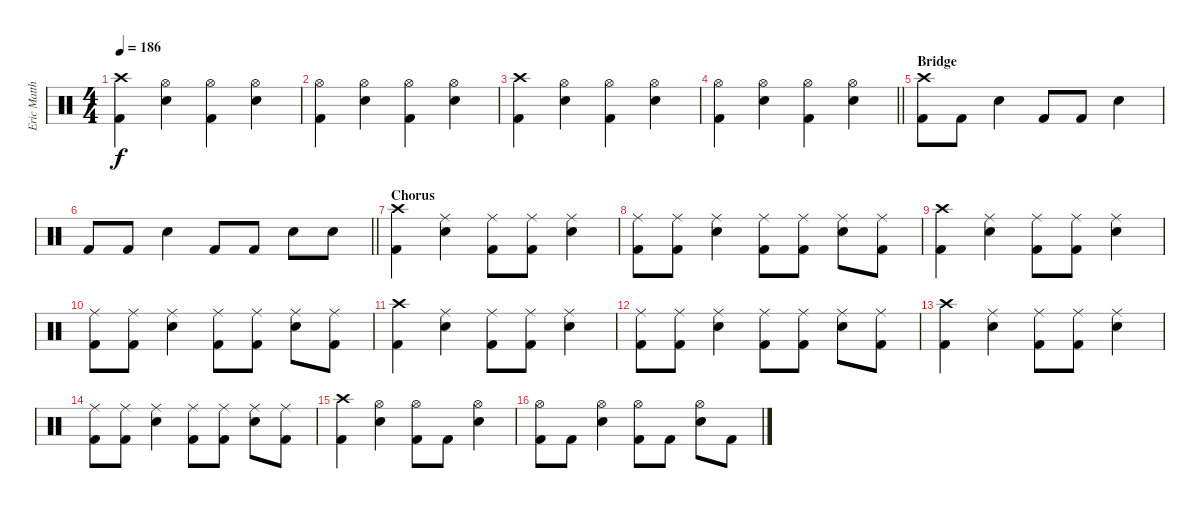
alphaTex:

\track ("Eric Matthews" "Eric Matth") {instrument percussion}
\staff {score}
\articulation defaults
\ts (4 4)
\tempo 186
\clef neutral
\ks c
("Crash high (hit)" "Kick (hit) 2").4{dy f} ("Hi-Hat (open)" "Electric Snare (hit)").4 ("Hi-Hat (open)" "Kick (hit) 2").4 ("Hi-Hat (open)" "Electric Snare (hit)").4 |
("Hi-Hat (open)" "Kick (hit) 2").4 ("Hi-Hat (open)" "Electric Snare (hit)").4 ("Hi-Hat (open)" "Kick (hit) 2").4 ("Hi-Hat (open)" "Electric Snare (hit)").4 |
("Crash high (hit)" "Kick (hit) 2").4 ("Hi-Hat (open)" "Electric Snare (hit)").4 ("Hi-Hat (open)" "Kick (hit) 2").4 ("Hi-Hat (open)" "Electric Snare (hit)").4 |
\barLineRight lightlight
("Hi-Hat (open)" "Kick (hit) 2").4 ("Hi-Hat (open)" "Electric Snare (hit)").4 ("Hi-Hat (open)" "Kick (hit) 2").4 ("Hi-Hat (open)" "Electric Snare (hit)").4 |
\section ("" "Bridge")
("Crash high (hit)" "Kick (hit) 2").8 "Kick (hit) 2".8 "Electric Snare (hit)".4 "Kick (hit) 2".8 "Kick (hit) 2".8 "Electric Snare (hit)".4 |
\barLineRight lightlight "Kick (hit) 2".8 "Kick (hit) 2".8 "Electric Snare (hit)".4 "Kick (hit) 2".8 "Kick (hit) 2".8 "Electric Snare (hit)".8 "Electric Snare (hit)".8
|
\section ("" "Chorus")
("Crash high (hit)" "Kick (hit) 2").4 ("Ride (middle)" "Electric Snare (hit)").4 ("Ride (middle)" "Kick (hit) 2").8 ("Ride (middle)" "Kick (hit) 2").8 ("Ride (middle)" "Electric Snare (hit)").4 |
("Ride (middle)" "Kick (hit) 2").8 ("Ride (middle)" "Kick (hit) 2").8 ("Ride (middle)" "Electric Snare (hit)").4 ("Ride (middle)" "Kick (hit) 2").8 ("Ride (middle)" "Kick (hit) 2").8 ("Ride (middle)" "Electric Snare (hit)").8 ("Ride (middle)" "Kick (hit) 2").8 |
("Crash high (hit)" "Kick (hit) 2").4 ("Ride (middle)" "Electric Snare (hit)").4 ("Ride (middle)" "Kick (hit) 2").8 ("Ride (middle)" "Kick (hit) 2").8 ("Ride (middle)" "Electric Snare (hit)").4 |
("Ride (middle)" "Kick (hit) 2").8 ("Ride (middle)" "Kick (hit) 2").8 ("Ride (middle)" "Electric Snare (hit)").4 ("Ride (middle)" "Kick (hit) 2").8 ("Ride (middle)" "Kick (hit) 2").8 ("Ride (middle)" "Electric Snare (hit)").8 ("Ride (middle)" "Kick (hit) 2").8 |
("Crash high (hit)" "Kick (hit) 2").4 ("Ride (middle)" "Electric Snare (hit)").4 ("Ride (middle)" "Kick (hit) 2").8 ("Ride (middle)" "Kick (hit) 2").8 ("Ride (middle)" "Electric Snare (hit)").4 |
("Ride (middle)" "Kick (hit) 2").8 ("Ride (middle)" "Kick (hit) 2").8 ("Ride (middle)" "Electric Snare (hit)").4 ("Ride (middle)" "Kick (hit) 2").8 ("Ride (middle)" "Kick (hit) 2").8 ("Ride (middle)" "Electric Snare (hit)").8 ("Ride (middle)" "Kick (hit) 2").8 |
("Crash high (hit)" "Kick (hit) 2").4 ("Ride (middle)" "Electric Snare (hit)").4 ("Ride (middle)" "Kick (hit) 2").8 ("Ride (middle)" "Kick (hit) 2").8 ("Ride (middle)" "Electric Snare (hit)").4 |
("Ride (middle)" "Kick (hit) 2").8 ("Ride (middle)" "Kick (hit) 2").8 ("Ride (middle)" "Electric Snare (hit)").4 ("Ride (middle)" "Kick (hit) 2").8 ("Ride (middle)" "Kick (hit) 2").8 ("Ride (middle)" "Electric Snare (hit)").8 ("Ride (middle)" "Kick (hit) 2").8 |
("Crash high (hit)" "Kick (hit) 2").4 ("Hi-Hat (open)" "Electric Snare (hit)").4 ("Hi-Hat (open)" "Kick (hit) 2").8 "Kick (hit) 2".8 ("Hi-Hat (open)" "Electric Snare (hit)").4 |
("Hi-Hat (open)" "Kick (hit) 2").8 "Kick (hit) 2".8 ("Hi-Hat (open)" "Electric Snare (hit)").4 ("Hi-Hat (open)" "Kick (hit) 2").8 "Kick (hit) 2".8 ("Hi-Hat (open)" "Electric Snare (hit)").8 "Kick (hit) 2".8
